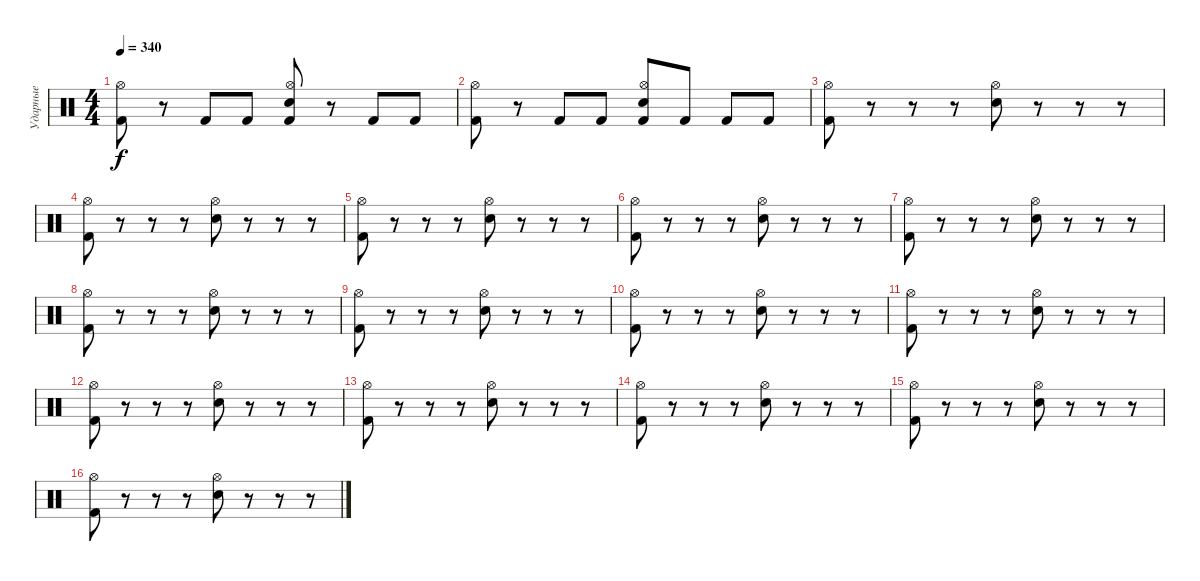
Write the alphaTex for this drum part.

\track ("Ударные" "Ударные") {instrument percussion}
\staff {score}
\articulation defaults
\ts (4 4)
\tempo 340
\clef neutral
\ks c
("Kick (hit) 2" "Hi-Hat (open)").8{dy f} r.8 "Kick (hit) 2".8 "Kick (hit) 2".8 ("Kick (hit) 2" "Electric Snare (hit)" "Hi-Hat (open)").8 r.8 "Kick (hit) 2".8 "Kick (hit) 2".8 |
("Kick (hit) 2" "Hi-Hat (open)").8 r.8 "Kick (hit) 2".8 "Kick (hit) 2".8 ("Kick (hit) 2" "Electric Snare (hit)" "Hi-Hat (open)").8 "Kick (hit) 2".8 "Kick (hit) 2".8 "Kick (hit) 2".8 |
("Kick (hit) 2" "Hi-Hat (open)").8 r.8 r.8 r.8 ("Electric Snare (hit)" "Hi-Hat (open)").8 r.8 r.8 r.8 |
("Kick (hit) 2" "Hi-Hat (open)").8 r.8 r.8 r.8 ("Electric Snare (hit)" "Hi-Hat (open)").8 r.8 r.8 r.8 |
("Kick (hit) 2" "Hi-Hat (open)").8 r.8 r.8 r.8 ("Electric Snare (hit)" "Hi-Hat (open)").8 r.8 r.8 r.8 |
("Kick (hit) 2" "Hi-Hat (open)").8 r.8 r.8 r.8 ("Electric Snare (hit)" "Hi-Hat (open)").8 r.8 r.8 r.8 |
("Kick (hit) 2" "Hi-Hat (open)").8 r.8 r.8 r.8 ("Electric Snare (hit)" "Hi-Hat (open)").8 r.8 r.8 r.8 |
("Kick (hit) 2" "Hi-Hat (open)").8 r.8 r.8 r.8 ("Electric Snare (hit)" "Hi-Hat (open)").8 r.8 r.8 r.8 |
("Kick (hit) 2" "Hi-Hat (open)").8 r.8 r.8 r.8 ("Electric Snare (hit)" "Hi-Hat (open)").8 r.8 r.8 r.8 |
("Kick (hit) 2" "Hi-Hat (open)").8 r.8 r.8 r.8 ("Electric Snare (hit)" "Hi-Hat (open)").8 r.8 r.8 r.8 |
("Kick (hit) 2" "Hi-Hat (open)").8 r.8 r.8 r.8 ("Electric Snare (hit)" "Hi-Hat (open)").8 r.8 r.8 r.8 |
("Kick (hit) 2" "Hi-Hat (open)").8 r.8 r.8 r.8 ("Electric Snare (hit)" "Hi-Hat (open)").8 r.8 r.8 r.8 |
("Kick (hit) 2" "Hi-Hat (open)").8 r.8 r.8 r.8 ("Electric Snare (hit)" "Hi-Hat (open)").8 r.8 r.8 r.8 |
("Kick (hit) 2" "Hi-Hat (open)").8 r.8 r.8 r.8 ("Electric Snare (hit)" "Hi-Hat (open)").8 r.8 r.8 r.8 |
("Kick (hit) 2" "Hi-Hat (open)").8 r.8 r.8 r.8 ("Electric Snare (hit)" "Hi-Hat (open)").8 r.8 r.8 r.8 |
("Kick (hit) 2" "Hi-Hat (open)").8 r.8 r.8 r.8 ("Electric Snare (hit)" "Hi-Hat (open)").8 r.8 r.8 r.8
